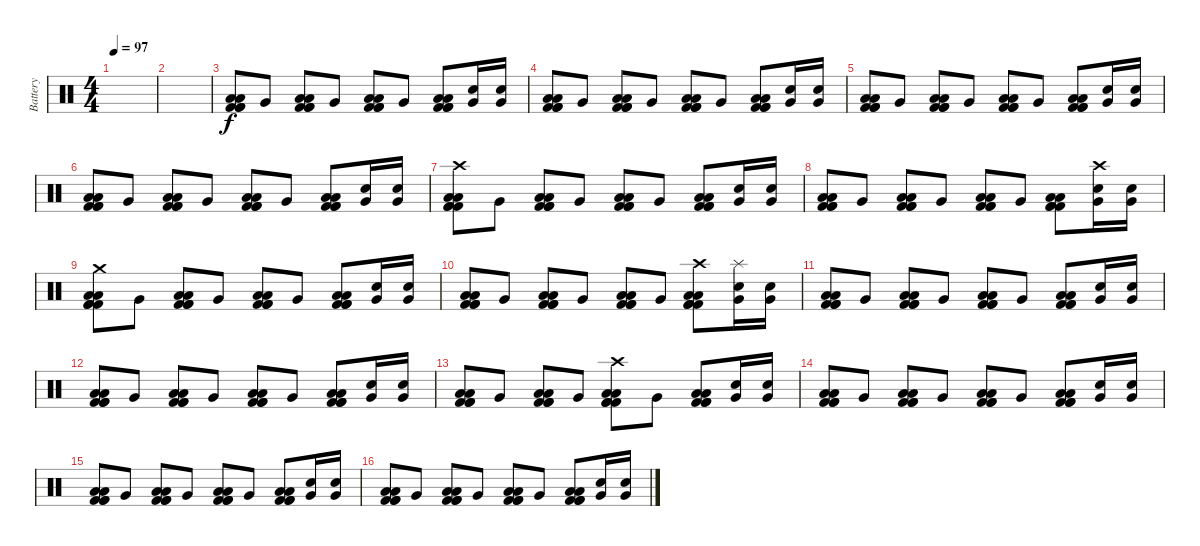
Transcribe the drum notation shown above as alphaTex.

\track ("Battery" "Battery") {instrument percussion}
\staff {score}
\articulation defaults
\ts (4 4)
\tempo 97
\clef neutral
\ks c
|
|
("Low Tom (hit)" "Kick (hit) 2" "Low Tom (hit)" "Kick (hit) 2" "Kick (hit) 2").8 "Very Low Tom (hit)".8 ("Low Floor Tom (hit)" "Kick (hit) 2" "Low Tom (hit)" "Kick (hit) 2" "Kick (hit) 2").8 "Very Low Tom (hit)".8 ("Low Tom (hit)" "Kick (hit) 2" "Low Tom (hit)" "Kick (hit) 2" "Kick (hit) 2").8 "Very Low Tom (hit)".8 ("Low Tom (hit)" "Kick (hit) 2" "Low Tom (hit)" "Kick (hit) 2" "Kick (hit) 2").8 ("Very Low Tom (hit)" "Snare (hit) 2").16 ("Very Low Tom (hit)" "Snare (hit) 2").16 |
("Low Tom (hit)" "Kick (hit) 2" "Low Tom (hit)" "Kick (hit) 2" "Kick (hit) 2").8 "Very Low Tom (hit)".8 ("Low Floor Tom (hit)" "Kick (hit) 2" "Low Tom (hit)" "Kick (hit) 2" "Kick (hit) 2").8 "Very Low Tom (hit)".8 ("Low Tom (hit)" "Kick (hit) 2" "Low Tom (hit)" "Kick (hit) 2" "Kick (hit) 2").8 "Very Low Tom (hit)".8 ("Low Tom (hit)" "Kick (hit) 2" "Low Tom (hit)" "Kick (hit) 2" "Kick (hit) 2").8 ("Very Low Tom (hit)" "Snare (hit) 2").16 ("Very Low Tom (hit)" "Snare (hit) 2").16 |
("Low Tom (hit)" "Kick (hit) 2" "Low Tom (hit)" "Kick (hit) 2" "Kick (hit) 2").8 "Very Low Tom (hit)".8 ("Low Floor Tom (hit)" "Kick (hit) 2" "Low Tom (hit)" "Kick (hit) 2" "Kick (hit) 2").8 "Very Low Tom (hit)".8 ("Low Tom (hit)" "Kick (hit) 2" "Low Tom (hit)" "Kick (hit) 2" "Kick (hit) 2").8 "Very Low Tom (hit)".8 ("Low Tom (hit)" "Kick (hit) 2" "Low Tom (hit)" "Kick (hit) 2" "Kick (hit) 2").8 ("Very Low Tom (hit)" "Snare (hit) 2").16 ("Very Low Tom (hit)" "Snare (hit) 2").16 |
("Low Tom (hit)" "Kick (hit) 2" "Low Tom (hit)" "Kick (hit) 2" "Kick (hit) 2").8 "Very Low Tom (hit)".8 ("Low Floor Tom (hit)" "Kick (hit) 2" "Low Tom (hit)" "Kick (hit) 2" "Kick (hit) 2").8 "Very Low Tom (hit)".8 ("Low Tom (hit)" "Kick (hit) 2" "Low Tom (hit)" "Kick (hit) 2" "Kick (hit) 2").8 "Very Low Tom (hit)".8 ("Low Tom (hit)" "Kick (hit) 2" "Low Tom (hit)" "Kick (hit) 2" "Kick (hit) 2").8 ("Very Low Tom (hit)" "Snare (hit) 2").16 ("Very Low Tom (hit)" "Snare (hit) 2").16 |
("Low Tom (hit)" "Kick (hit) 2" "Low Tom (hit)" "Kick (hit) 2" "Kick (hit) 2" "Crash high (hit)").8 "Very Low Tom (hit)".8 ("Low Floor Tom (hit)" "Kick (hit) 2" "Low Tom (hit)" "Kick (hit) 2" "Kick (hit) 2").8 "Very Low Tom (hit)".8 ("Low Tom (hit)" "Kick (hit) 2" "Low Tom (hit)" "Kick (hit) 2" "Kick (hit) 2").8 "Very Low Tom (hit)".8 ("Low Tom (hit)" "Kick (hit) 2" "Low Tom (hit)" "Kick (hit) 2" "Kick (hit) 2").8 ("Very Low Tom (hit)" "Snare (hit) 2").16 ("Very Low Tom (hit)" "Snare (hit) 2").16 |
("Low Tom (hit)" "Kick (hit) 2" "Low Tom (hit)" "Kick (hit) 2" "Kick (hit) 2").8 "Very Low Tom (hit)".8 ("Low Floor Tom (hit)" "Kick (hit) 2" "Low Tom (hit)" "Kick (hit) 2" "Kick (hit) 2").8 "Very Low Tom (hit)".8 ("Low Tom (hit)" "Kick (hit) 2" "Low Tom (hit)" "Kick (hit) 2" "Kick (hit) 2").8 "Very Low Tom (hit)".8 ("Low Tom (hit)" "Kick (hit) 2" "Low Tom (hit)" "Kick (hit) 2" "Kick (hit) 2").8 ("Very Low Tom (hit)" "Snare (hit) 2" "Crash high (hit)").16 ("Very Low Tom (hit)" "Snare (hit) 2").16 |
("Low Tom (hit)" "Kick (hit) 2" "Low Tom (hit)" "Kick (hit) 2" "Kick (hit) 2" "Crash medium (hit)").8 "Very Low Tom (hit)".8 ("Low Floor Tom (hit)" "Kick (hit) 2" "Low Tom (hit)" "Kick (hit) 2" "Kick (hit) 2").8 "Very Low Tom (hit)".8 ("Low Tom (hit)" "Kick (hit) 2" "Low Tom (hit)" "Kick (hit) 2" "Kick (hit) 2").8 "Very Low Tom (hit)".8 ("Low Tom (hit)" "Kick (hit) 2" "Low Tom (hit)" "Kick (hit) 2" "Kick (hit) 2").8 ("Very Low Tom (hit)" "Snare (hit) 2").16 ("Very Low Tom (hit)" "Snare (hit) 2").16 |
("Low Tom (hit)" "Kick (hit) 2" "Low Tom (hit)" "Kick (hit) 2" "Kick (hit) 2").8 "Very Low Tom (hit)".8 ("Low Floor Tom (hit)" "Kick (hit) 2" "Low Tom (hit)" "Kick (hit) 2" "Kick (hit) 2").8 "Very Low Tom (hit)".8 ("Low Tom (hit)" "Kick (hit) 2" "Low Tom (hit)" "Kick (hit) 2" "Kick (hit) 2").8 "Very Low Tom (hit)".8 ("Low Tom (hit)" "Kick (hit) 2" "Low Tom (hit)" "Kick (hit) 2" "Kick (hit) 2" "Crash high (hit)").8 ("Very Low Tom (hit)" "Snare (hit) 2" "Splash (hit)").16 ("Very Low Tom (hit)" "Snare (hit) 2").16 |
("Low Tom (hit)" "Kick (hit) 2" "Low Tom (hit)" "Kick (hit) 2" "Kick (hit) 2").8 "Very Low Tom (hit)".8 ("Low Floor Tom (hit)" "Kick (hit) 2" "Low Tom (hit)" "Kick (hit) 2" "Kick (hit) 2").8 "Very Low Tom (hit)".8 ("Low Tom (hit)" "Kick (hit) 2" "Low Tom (hit)" "Kick (hit) 2" "Kick (hit) 2").8 "Very Low Tom (hit)".8 ("Low Tom (hit)" "Kick (hit) 2" "Low Tom (hit)" "Kick (hit) 2" "Kick (hit) 2").8 ("Very Low Tom (hit)" "Snare (hit) 2").16 ("Very Low Tom (hit)" "Snare (hit) 2").16 |
("Low Tom (hit)" "Kick (hit) 2" "Low Tom (hit)" "Kick (hit) 2" "Kick (hit) 2").8 "Very Low Tom (hit)".8 ("Low Floor Tom (hit)" "Kick (hit) 2" "Low Tom (hit)" "Kick (hit) 2" "Kick (hit) 2").8 "Very Low Tom (hit)".8 ("Low Tom (hit)" "Kick (hit) 2" "Low Tom (hit)" "Kick (hit) 2" "Kick (hit) 2").8 "Very Low Tom (hit)".8 ("Low Tom (hit)" "Kick (hit) 2" "Low Tom (hit)" "Kick (hit) 2" "Kick (hit) 2").8 ("Very Low Tom (hit)" "Snare (hit) 2").16 ("Very Low Tom (hit)" "Snare (hit) 2").16 |
("Low Tom (hit)" "Kick (hit) 2" "Low Tom (hit)" "Kick (hit) 2" "Kick (hit) 2").8 "Very Low Tom (hit)".8 ("Low Floor Tom (hit)" "Kick (hit) 2" "Low Tom (hit)" "Kick (hit) 2" "Kick (hit) 2").8 "Very Low Tom (hit)".8 ("Low Tom (hit)" "Kick (hit) 2" "Low Tom (hit)" "Kick (hit) 2" "Kick (hit) 2" "Crash high (hit)").8 "Very Low Tom (hit)".8 ("Low Tom (hit)" "Kick (hit) 2" "Low Tom (hit)" "Kick (hit) 2" "Kick (hit) 2").8 ("Very Low Tom (hit)" "Snare (hit) 2").16 ("Very Low Tom (hit)" "Snare (hit) 2").16 |
("Low Tom (hit)" "Kick (hit) 2" "Low Tom (hit)" "Kick (hit) 2" "Kick (hit) 2").8 "Very Low Tom (hit)".8 ("Low Floor Tom (hit)" "Kick (hit) 2" "Low Tom (hit)" "Kick (hit) 2" "Kick (hit) 2").8 "Very Low Tom (hit)".8 ("Low Tom (hit)" "Kick (hit) 2" "Low Tom (hit)" "Kick (hit) 2" "Kick (hit) 2").8 "Very Low Tom (hit)".8 ("Low Tom (hit)" "Kick (hit) 2" "Low Tom (hit)" "Kick (hit) 2" "Kick (hit) 2").8 ("Very Low Tom (hit)" "Snare (hit) 2").16 ("Very Low Tom (hit)" "Snare (hit) 2").16 |
("Low Tom (hit)" "Kick (hit) 2" "Low Tom (hit)" "Kick (hit) 2" "Kick (hit) 2").8 "Very Low Tom (hit)".8 ("Low Floor Tom (hit)" "Kick (hit) 2" "Low Tom (hit)" "Kick (hit) 2" "Kick (hit) 2").8 "Very Low Tom (hit)".8 ("Low Tom (hit)" "Kick (hit) 2" "Low Tom (hit)" "Kick (hit) 2" "Kick (hit) 2").8 "Very Low Tom (hit)".8 ("Low Tom (hit)" "Kick (hit) 2" "Low Tom (hit)" "Kick (hit) 2" "Kick (hit) 2").8 ("Very Low Tom (hit)" "Snare (hit) 2").16 ("Very Low Tom (hit)" "Snare (hit) 2").16 |
("Low Tom (hit)" "Kick (hit) 2" "Low Tom (hit)" "Kick (hit) 2" "Kick (hit) 2").8 "Very Low Tom (hit)".8 ("Low Floor Tom (hit)" "Kick (hit) 2" "Low Tom (hit)" "Kick (hit) 2" "Kick (hit) 2").8 "Very Low Tom (hit)".8 ("Low Tom (hit)" "Kick (hit) 2" "Low Tom (hit)" "Kick (hit) 2" "Kick (hit) 2").8 "Very Low Tom (hit)".8 ("Low Tom (hit)" "Kick (hit) 2" "Low Tom (hit)" "Kick (hit) 2" "Kick (hit) 2").8 ("Very Low Tom (hit)" "Snare (hit) 2").16 ("Very Low Tom (hit)" "Snare (hit) 2").16
